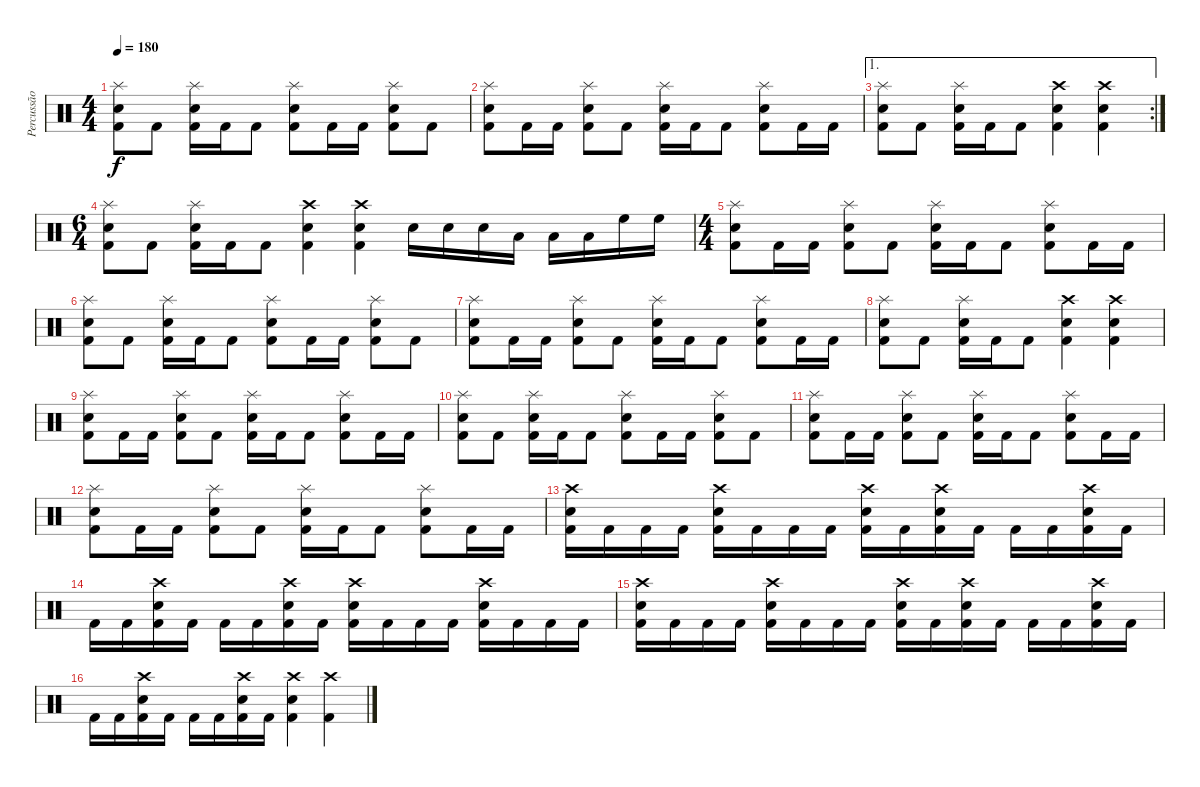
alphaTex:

\track ("Percussão" "Percussão") {instrument percussion}
\staff {score}
\articulation defaults
\ts (4 4)
\tempo 180
\clef neutral
\ks c
("Kick (hit) 2" "Snare (hit) 2" "Splash (hit)").8{dy f} "Kick (hit) 2".8 ("Kick (hit) 2" "Snare (hit) 2" "Splash (hit)").16 "Kick (hit) 2".16 "Kick (hit) 2".8 ("Kick (hit) 2" "Snare (hit) 2" "Splash (hit)").8 "Kick (hit) 2".16 "Kick (hit) 2".16 ("Kick (hit) 2" "Snare (hit) 2" "Splash (hit)").8 "Kick (hit) 2".8 |
("Kick (hit) 2" "Snare (hit) 2" "Splash (hit)").8 "Kick (hit) 2".16 "Kick (hit) 2".16 ("Kick (hit) 2" "Snare (hit) 2" "Splash (hit)").8 "Kick (hit) 2".8 ("Kick (hit) 2" "Snare (hit) 2" "Splash (hit)").16 "Kick (hit) 2".16 "Kick (hit) 2".8 ("Kick (hit) 2" "Snare (hit) 2" "Splash (hit)").8 "Kick (hit) 2".16 "Kick (hit) 2".16 |
\ae 1
\rc 2
("Kick (hit) 2" "Snare (hit) 2" "Splash (hit)").8 "Kick (hit) 2".8 ("Kick (hit) 2" "Snare (hit) 2" "Splash (hit)").16 "Kick (hit) 2".16 "Kick (hit) 2".8 ("Kick (hit) 2" "Snare (hit) 2" "Crash high (hit)").4 ("Kick (hit) 2" "Snare (hit) 2" "Crash high (hit)").4 |
\ts (6 4)
("Kick (hit) 2" "Snare (hit) 2" "Splash (hit)").8 "Kick (hit) 2".8 ("Kick (hit) 2" "Snare (hit) 2" "Splash (hit)").16 "Kick (hit) 2".16 "Kick (hit) 2".8 ("Kick (hit) 2" "Snare (hit) 2" "Crash high (hit)").4 ("Kick (hit) 2" "Snare (hit) 2" "Crash high (hit)").4 "Snare (hit) 2".16 "Snare (hit) 2".16 "Snare (hit) 2".16 "Low Tom (hit)".16 "Low Tom (hit)".16 "Low Tom (hit)".16 "High Floor Tom (hit)".16 "High Floor Tom (hit)".16 |
\ts (4 4)
("Kick (hit) 2" "Snare (hit) 2" "Splash (hit)").8 "Kick (hit) 2".16 "Kick (hit) 2".16 ("Kick (hit) 2" "Snare (hit) 2" "Splash (hit)").8 "Kick (hit) 2".8 ("Kick (hit) 2" "Snare (hit) 2" "Splash (hit)").16 "Kick (hit) 2".16 "Kick (hit) 2".8 ("Kick (hit) 2" "Snare (hit) 2" "Splash (hit)").8 "Kick (hit) 2".16 "Kick (hit) 2".16 |
("Kick (hit) 2" "Snare (hit) 2" "Splash (hit)").8 "Kick (hit) 2".8 ("Kick (hit) 2" "Snare (hit) 2" "Splash (hit)").16 "Kick (hit) 2".16 "Kick (hit) 2".8 ("Kick (hit) 2" "Snare (hit) 2" "Splash (hit)").8 "Kick (hit) 2".16 "Kick (hit) 2".16 ("Kick (hit) 2" "Snare (hit) 2" "Splash (hit)").8 "Kick (hit) 2".8 |
("Kick (hit) 2" "Snare (hit) 2" "Splash (hit)").8 "Kick (hit) 2".16 "Kick (hit) 2".16 ("Kick (hit) 2" "Snare (hit) 2" "Splash (hit)").8 "Kick (hit) 2".8 ("Kick (hit) 2" "Snare (hit) 2" "Splash (hit)").16 "Kick (hit) 2".16 "Kick (hit) 2".8 ("Kick (hit) 2" "Snare (hit) 2" "Splash (hit)").8 "Kick (hit) 2".16 "Kick (hit) 2".16 |
("Kick (hit) 2" "Snare (hit) 2" "Splash (hit)").8 "Kick (hit) 2".8 ("Kick (hit) 2" "Snare (hit) 2" "Splash (hit)").16 "Kick (hit) 2".16 "Kick (hit) 2".8 ("Kick (hit) 2" "Snare (hit) 2" "Crash high (hit)").4 ("Kick (hit) 2" "Snare (hit) 2" "Crash high (hit)").4 |
("Kick (hit) 2" "Snare (hit) 2" "Splash (hit)").8 "Kick (hit) 2".16 "Kick (hit) 2".16 ("Kick (hit) 2" "Snare (hit) 2" "Splash (hit)").8 "Kick (hit) 2".8 ("Kick (hit) 2" "Snare (hit) 2" "Splash (hit)").16 "Kick (hit) 2".16 "Kick (hit) 2".8 ("Kick (hit) 2" "Snare (hit) 2" "Splash (hit)").8 "Kick (hit) 2".16 "Kick (hit) 2".16 |
("Kick (hit) 2" "Snare (hit) 2" "Splash (hit)").8 "Kick (hit) 2".8 ("Kick (hit) 2" "Snare (hit) 2" "Splash (hit)").16 "Kick (hit) 2".16 "Kick (hit) 2".8 ("Kick (hit) 2" "Snare (hit) 2" "Splash (hit)").8 "Kick (hit) 2".16 "Kick (hit) 2".16 ("Kick (hit) 2" "Snare (hit) 2" "Splash (hit)").8 "Kick (hit) 2".8 |
("Kick (hit) 2" "Snare (hit) 2" "Splash (hit)").8 "Kick (hit) 2".16 "Kick (hit) 2".16 ("Kick (hit) 2" "Snare (hit) 2" "Splash (hit)").8 "Kick (hit) 2".8 ("Kick (hit) 2" "Snare (hit) 2" "Splash (hit)").16 "Kick (hit) 2".16 "Kick (hit) 2".8 ("Kick (hit) 2" "Snare (hit) 2" "Splash (hit)").8 "Kick (hit) 2".16 "Kick (hit) 2".16 |
("Kick (hit) 2" "Snare (hit) 2" "Splash (hit)").8 "Kick (hit) 2".16 "Kick (hit) 2".16 ("Kick (hit) 2" "Snare (hit) 2" "Splash (hit)").8 "Kick (hit) 2".8 ("Kick (hit) 2" "Snare (hit) 2" "Splash (hit)").16 "Kick (hit) 2".16 "Kick (hit) 2".8 ("Kick (hit) 2" "Snare (hit) 2" "Splash (hit)").8 "Kick (hit) 2".16 "Kick (hit) 2".16 |
("Kick (hit) 2" "Snare (hit) 2" "Crash high (hit)").16 "Kick (hit) 2".16 "Kick (hit) 2".16 "Kick (hit) 2".16 ("Kick (hit) 2" "Snare (hit) 2" "Crash high (hit)").16 "Kick (hit) 2".16 "Kick (hit) 2".16 "Kick (hit) 2".16 ("Kick (hit) 2" "Snare (hit) 2" "Crash high (hit)").16 "Kick (hit) 2".16 ("Kick (hit) 2" "Snare (hit) 2" "Crash high (hit)").16 "Kick (hit) 2".16 "Kick (hit) 2".16 "Kick (hit) 2".16 ("Kick (hit) 2" "Snare (hit) 2" "Crash high (hit)").16 "Kick (hit) 2".16 |
"Kick (hit) 2".16 "Kick (hit) 2".16 ("Kick (hit) 2" "Snare (hit) 2" "Crash high (hit)").16 "Kick (hit) 2".16 "Kick (hit) 2".16 "Kick (hit) 2".16 ("Kick (hit) 2" "Snare (hit) 2" "Crash high (hit)").16 "Kick (hit) 2".16 ("Kick (hit) 2" "Snare (hit) 2" "Crash high (hit)").16 "Kick (hit) 2".16 "Kick (hit) 2".16 "Kick (hit) 2".16 ("Kick (hit) 2" "Snare (hit) 2" "Crash high (hit)").16 "Kick (hit) 2".16 "Kick (hit) 2".16 "Kick (hit) 2".16 |
("Kick (hit) 2" "Snare (hit) 2" "Crash high (hit)").16 "Kick (hit) 2".16 "Kick (hit) 2".16 "Kick (hit) 2".16 ("Kick (hit) 2" "Snare (hit) 2" "Crash high (hit)").16 "Kick (hit) 2".16 "Kick (hit) 2".16 "Kick (hit) 2".16 ("Kick (hit) 2" "Snare (hit) 2" "Crash high (hit)").16 "Kick (hit) 2".16 ("Kick (hit) 2" "Snare (hit) 2" "Crash high (hit)").16 "Kick (hit) 2".16 "Kick (hit) 2".16 "Kick (hit) 2".16 ("Kick (hit) 2" "Snare (hit) 2" "Crash high (hit)").16 "Kick (hit) 2".16 |
"Kick (hit) 2".16 "Kick (hit) 2".16 ("Kick (hit) 2" "Snare (hit) 2" "Crash high (hit)").16 "Kick (hit) 2".16 "Kick (hit) 2".16 "Kick (hit) 2".16 ("Kick (hit) 2" "Snare (hit) 2" "Crash high (hit)").16 "Kick (hit) 2".16 ("Kick (hit) 2" "Snare (hit) 2" "Crash high (hit)").4 ("Kick (hit) 2" "Crash high (hit)").4
